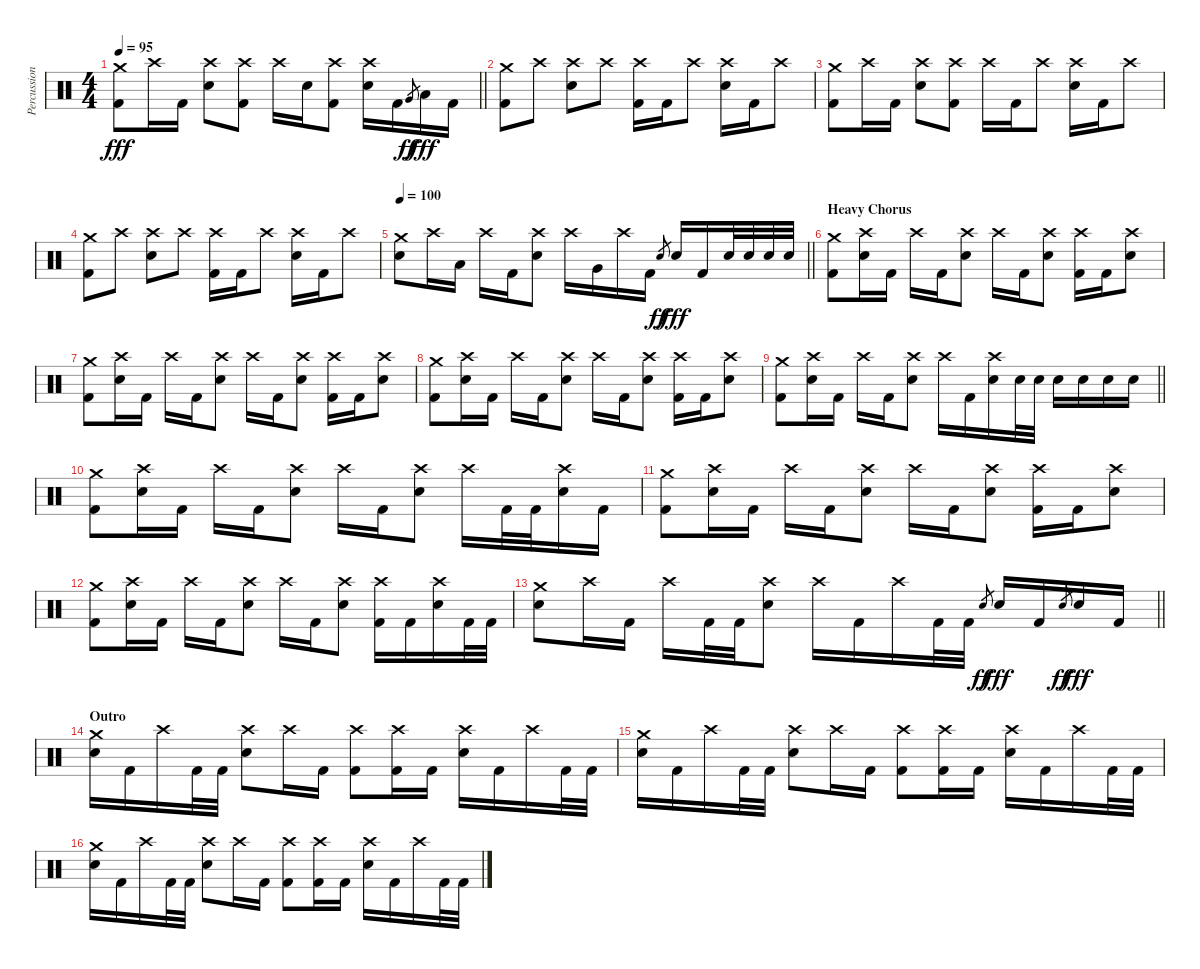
\track ("Percussion" "Percussion") {instrument percussion}
\staff {score}
\articulation defaults
\ts (4 4)
\tempo 95
\clef neutral
\barLineRight lightlight
\ks c
("Crash medium (hit)" "Kick (hit) 2").8{dy fff} "Crash high (hit)".16 "Kick (hit) 2".16 ("Crash high (hit)" "Snare (hit) 2").8 ("Crash high (hit)" "Kick (hit) 2").8 "Crash high (hit)".16 "Snare (hit) 2".16 ("Crash high (hit)" "Kick (hit) 2").8 ("Crash high (hit)" "Snare (hit) 2").16 "Kick (hit) 2".16 "Very Low Tom (hit)".8{gr dy ff} "Low Tom (hit)".16{dy fff} "Kick (hit) 2".16 |
("Crash medium (hit)" "Kick (hit) 2").8 "Crash high (hit)".8 ("Crash high (hit)" "Snare (hit) 2").8 "Crash high (hit)".8 ("Crash high (hit)" "Kick (hit) 2").16 "Kick (hit) 2".16 "Crash high (hit)".8 ("Crash high (hit)" "Snare (hit) 2").16 "Kick (hit) 2".16 "Crash high (hit)".8 |
("Crash medium (hit)" "Kick (hit) 2").8 "Crash high (hit)".16 "Kick (hit) 2".16 ("Crash high (hit)" "Snare (hit) 2").8 ("Crash high (hit)" "Kick (hit) 2").8 "Crash high (hit)".16 "Kick (hit) 2".16 "Crash high (hit)".8 ("Crash high (hit)" "Snare (hit) 2").16 "Kick (hit) 2".16 "Crash high (hit)".8 |
("Crash medium (hit)" "Kick (hit) 2").8 "Crash high (hit)".8 ("Crash high (hit)" "Snare (hit) 2").8 "Crash high (hit)".8 ("Crash high (hit)" "Kick (hit) 2").16 "Kick (hit) 2".16 "Crash high (hit)".8 ("Crash high (hit)" "Snare (hit) 2").16 "Kick (hit) 2".16 "Crash high (hit)".8 |
\tempo 100
\barLineRight lightlight
("Crash medium (hit)" "Snare (hit) 2").8 "Crash high (hit)".16 "Low Tom (hit)".16 "Crash high (hit)".16 "Kick (hit) 2".16 ("Crash high (hit)" "Snare (hit) 2").8 "Crash high (hit)".16 "Very Low Tom (hit)".16 "Crash high (hit)".16 "Kick (hit) 2".16 "Snare (hit) 2".8{gr dy ff} "Snare (hit) 2".16{dy fff} "Kick (hit) 2".16 "Snare (hit) 2".32 "Snare (hit) 2".32 "Snare (hit) 2".32 "Snare (hit) 2".32 |
\section ("" "Heavy Chorus")
("Crash medium (hit)" "Kick (hit) 2").8 ("Crash high (hit)" "Snare (hit) 2").16 "Kick (hit) 2".16 "Crash high (hit)".16 "Kick (hit) 2".16 ("Crash high (hit)" "Snare (hit) 2").8 "Crash high (hit)".16 "Kick (hit) 2".16 ("Crash high (hit)" "Snare (hit) 2").8 ("Crash high (hit)" "Kick (hit) 2").16 "Kick (hit) 2".16 ("Crash high (hit)" "Snare (hit) 2").8 |
("Crash medium (hit)" "Kick (hit) 2").8 ("Crash high (hit)" "Snare (hit) 2").16 "Kick (hit) 2".16 "Crash high (hit)".16 "Kick (hit) 2".16 ("Crash high (hit)" "Snare (hit) 2").8 "Crash high (hit)".16 "Kick (hit) 2".16 ("Crash high (hit)" "Snare (hit) 2").8 ("Crash high (hit)" "Kick (hit) 2").16 "Kick (hit) 2".16 ("Crash high (hit)" "Snare (hit) 2").8 |
("Crash medium (hit)" "Kick (hit) 2").8 ("Crash high (hit)" "Snare (hit) 2").16 "Kick (hit) 2".16 "Crash high (hit)".16 "Kick (hit) 2".16 ("Crash high (hit)" "Snare (hit) 2").8 "Crash high (hit)".16 "Kick (hit) 2".16 ("Crash high (hit)" "Snare (hit) 2").8 ("Crash high (hit)" "Kick (hit) 2").16 "Kick (hit) 2".16 ("Crash high (hit)" "Snare (hit) 2").8 |
\barLineRight lightlight
("Crash medium (hit)" "Kick (hit) 2").8 ("Crash high (hit)" "Snare (hit) 2").16 "Kick (hit) 2".16 "Crash high (hit)".16 "Kick (hit) 2".16 ("Crash high (hit)" "Snare (hit) 2").8 "Crash high (hit)".16 "Kick (hit) 2".16 ("Crash high (hit)" "Snare (hit) 2").16 "Snare (hit) 2".32 "Snare (hit) 2".32 "Snare (hit) 2".16 "Snare (hit) 2".16 "Snare (hit) 2".16 "Snare (hit) 2".16 |
("Crash medium (hit)" "Kick (hit) 2").8 ("Crash high (hit)" "Snare (hit) 2").16 "Kick (hit) 2".16 "Crash high (hit)".16 "Kick (hit) 2".16 ("Crash high (hit)" "Snare (hit) 2").8 "Crash high (hit)".16 "Kick (hit) 2".16 ("Crash high (hit)" "Snare (hit) 2").8 "Crash high (hit)".16 "Kick (hit) 2".32 "Kick (hit) 2".32 ("Crash high (hit)" "Snare (hit) 2").16 "Kick (hit) 2".16 |
("Crash medium (hit)" "Kick (hit) 2").8 ("Crash high (hit)" "Snare (hit) 2").16 "Kick (hit) 2".16 "Crash high (hit)".16 "Kick (hit) 2".16 ("Crash high (hit)" "Snare (hit) 2").8 "Crash high (hit)".16 "Kick (hit) 2".16 ("Crash high (hit)" "Snare (hit) 2").8 ("Crash high (hit)" "Kick (hit) 2").16 "Kick (hit) 2".16 ("Crash high (hit)" "Snare (hit) 2").8 |
("Crash medium (hit)" "Kick (hit) 2").8 ("Crash high (hit)" "Snare (hit) 2").16 "Kick (hit) 2".16 "Crash high (hit)".16 "Kick (hit) 2".16 ("Crash high (hit)" "Snare (hit) 2").8 "Crash high (hit)".16 "Kick (hit) 2".16 ("Crash high (hit)" "Snare (hit) 2").8 ("Crash high (hit)" "Kick (hit) 2").16 "Kick (hit) 2".16 ("Crash high (hit)" "Snare (hit) 2").16 "Kick (hit) 2".32 "Kick (hit) 2".32 |
\barLineRight lightlight
("Crash medium (hit)" "Snare (hit) 2").8 "Crash high (hit)".16 "Kick (hit) 2".16 "Crash high (hit)".16 "Kick (hit) 2".32 "Kick (hit) 2".32 ("Crash high (hit)" "Snare (hit) 2").8 "Crash high (hit)".16 "Kick (hit) 2".16 "Crash high (hit)".16 "Kick (hit) 2".32 "Kick (hit) 2".32 "Snare (hit) 2".8{gr dy ff} "Snare (hit) 2".16{dy fff} "Kick (hit) 2".16 "Snare (hit) 2".8{gr dy ff} "Snare (hit) 2".16{dy fff} "Kick (hit) 2".16 |
\section ("" "Outro")
("Crash medium (hit)" "Snare (hit) 2").16 "Kick (hit) 2".16 "Crash high (hit)".16 "Kick (hit) 2".32 "Kick (hit) 2".32 ("Crash high (hit)" "Snare (hit) 2").8 "Crash high (hit)".16 "Kick (hit) 2".16 ("Crash high (hit)" "Kick (hit) 2").8 ("Crash high (hit)" "Kick (hit) 2").16 "Kick (hit) 2".16 ("Crash high (hit)" "Snare (hit) 2").16 "Kick (hit) 2".16 "Crash high (hit)".16 "Kick (hit) 2".32 "Kick (hit) 2".32 |
("Crash medium (hit)" "Snare (hit) 2").16 "Kick (hit) 2".16 "Crash high (hit)".16 "Kick (hit) 2".32 "Kick (hit) 2".32 ("Crash high (hit)" "Snare (hit) 2").8 "Crash high (hit)".16 "Kick (hit) 2".16 ("Crash high (hit)" "Kick (hit) 2").8 ("Crash high (hit)" "Kick (hit) 2").16 "Kick (hit) 2".16 ("Crash high (hit)" "Snare (hit) 2").16 "Kick (hit) 2".16 "Crash high (hit)".16 "Kick (hit) 2".32 "Kick (hit) 2".32 |
("Crash medium (hit)" "Snare (hit) 2").16 "Kick (hit) 2".16 "Crash high (hit)".16 "Kick (hit) 2".32 "Kick (hit) 2".32 ("Crash high (hit)" "Snare (hit) 2").8 "Crash high (hit)".16 "Kick (hit) 2".16 ("Crash high (hit)" "Kick (hit) 2").8 ("Crash high (hit)" "Kick (hit) 2").16 "Kick (hit) 2".16 ("Crash high (hit)" "Snare (hit) 2").16 "Kick (hit) 2".16 "Crash high (hit)".16 "Kick (hit) 2".32 "Kick (hit) 2".32
